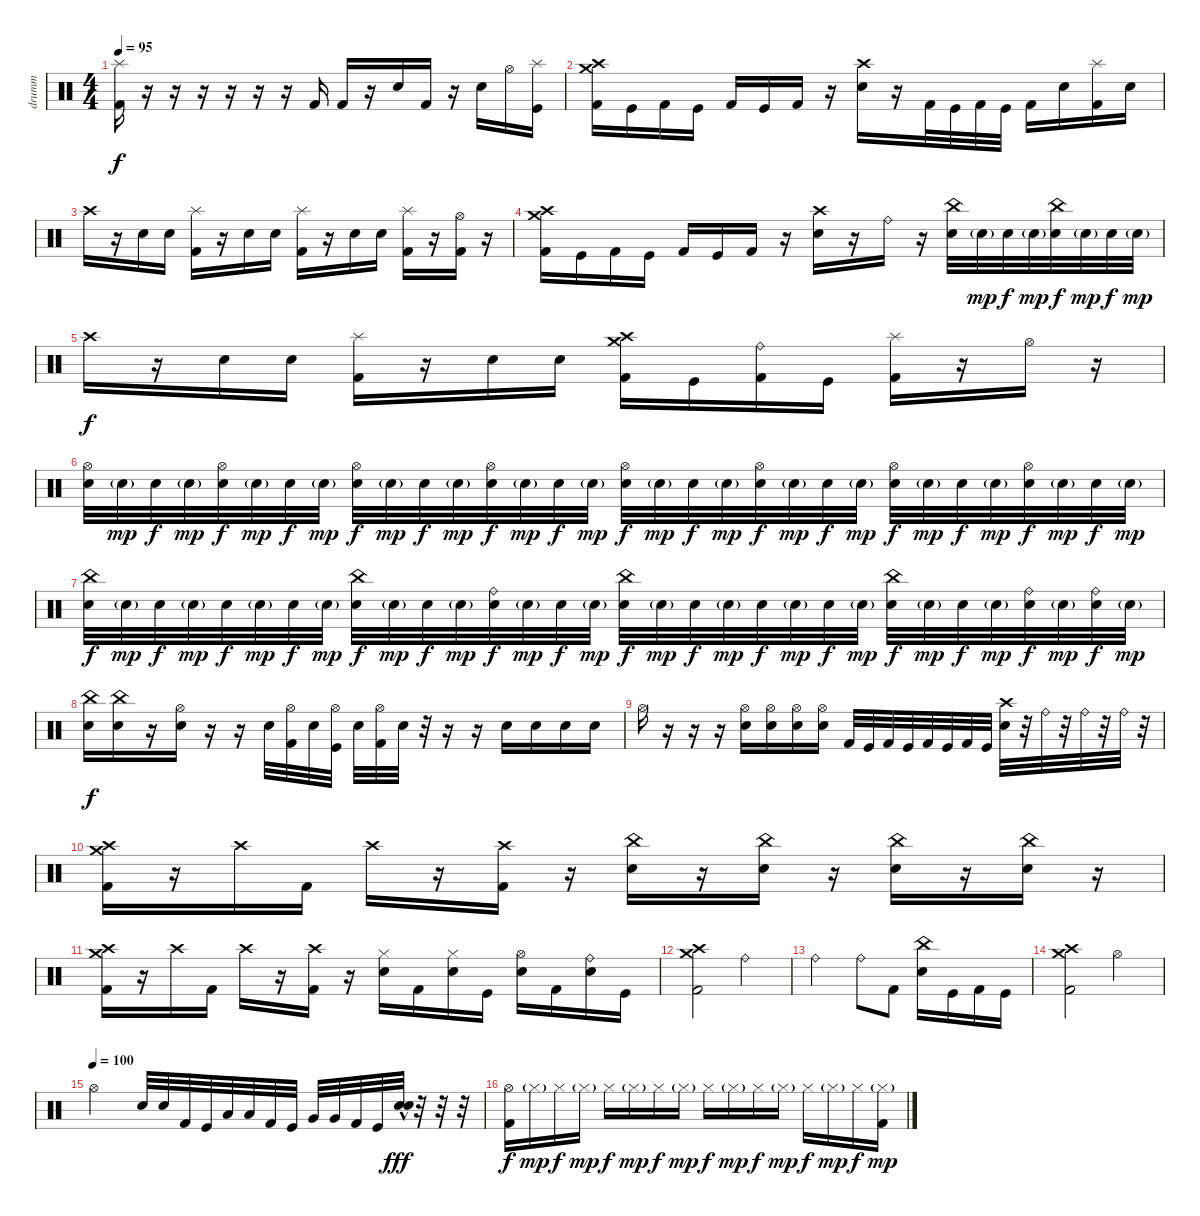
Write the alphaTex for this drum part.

\track ("drumm" "drumm") {instrument percussion}
\staff
\articulation defaults
\ts (4 4)
\tempo 95
\clef neutral
\ks c
("Kick (hit) 2" "Splash (hit)").16{dy f} r.16 r.16 r.16 r.16 r.16 r.16 "Kick (hit) 2".16 "Kick (hit) 2".16 r.16 "Electric Snare (hit)".16 "Kick (hit) 2".16 r.16 "Electric Snare (hit)".16 "Hi-Hat (open)".16 ("Kick (hit)" "Splash (hit)").16 |
("Kick (hit) 2" "Crash medium (hit)" "Crash high (hit)").16 "Kick (hit)".16 "Kick (hit) 2".16 "Kick (hit)".16 "Kick (hit) 2".16 "Kick (hit)".16 "Kick (hit) 2".16 r.16 ("Electric Snare (hit)" "Crash high (hit)").16 r.16 "Kick (hit) 2".32 "Kick (hit)".32 "Kick (hit) 2".32 "Kick (hit)".32 "Kick (hit) 2".16 "Electric Snare (hit)".16 ("Kick (hit) 2" "Splash (hit)").16 "Electric Snare (hit)".16 |
"Crash high (hit)".16 r.16 "Electric Snare (hit)".16 "Electric Snare (hit)".16 ("Kick (hit) 2" "Splash (hit)").16 r.16 "Electric Snare (hit)".16 "Electric Snare (hit)".16 ("Kick (hit) 2" "Splash (hit)").16 r.16 "Electric Snare (hit)".16 "Electric Snare (hit)".16 ("Kick (hit) 2" "Splash (hit)").16 r.16 ("Kick (hit) 2" "Hi-Hat (open)").16 r.16 |
("Kick (hit) 2" "Crash medium (hit)" "Crash high (hit)").16 "Kick (hit)".16 "Kick (hit) 2".16 "Kick (hit)".16 "Kick (hit) 2".16 "Kick (hit)".16 "Kick (hit) 2".16 r.16 ("Electric Snare (hit)" "Crash high (hit)").16 r.16 "Ride (bell)".16 r.16 ("Electric Snare (hit)" "China (hit)").32 "Electric Snare (hit)"{g}.32{dy mp} "Electric Snare (hit)".32{dy f} "Electric Snare (hit)"{g}.32{dy mp} ("Electric Snare (hit)" "China (hit)").32{dy f} "Electric Snare (hit)"{g}.32{dy mp} "Electric Snare (hit)".32{dy f} "Electric Snare (hit)"{g}.32{dy mp} |
"Crash high (hit)".16{dy f} r.16 "Electric Snare (hit)".16 "Electric Snare (hit)".16 ("Kick (hit) 2" "Splash (hit)").16 r.16 "Electric Snare (hit)".16 "Electric Snare (hit)".16 ("Kick (hit) 2" "Crash medium (hit)" "Crash high (hit)").16 "Kick (hit)".16 ("Kick (hit) 2" "Ride (bell)").16 "Kick (hit)".16 ("Kick (hit) 2" "Splash (hit)").16 r.16 "Hi-Hat (open)".16 r.16 |
("Electric Snare (hit)" "Hi-Hat (open)").32 "Electric Snare (hit)"{g}.32{dy mp} "Electric Snare (hit)".32{dy f} "Electric Snare (hit)"{g}.32{dy mp} ("Electric Snare (hit)" "Hi-Hat (open)").32{dy f} "Electric Snare (hit)"{g}.32{dy mp} "Electric Snare (hit)".32{dy f} "Electric Snare (hit)"{g}.32{dy mp} ("Electric Snare (hit)" "Hi-Hat (open)").32{dy f} "Electric Snare (hit)"{g}.32{dy mp} "Electric Snare (hit)".32{dy f} "Electric Snare (hit)"{g}.32{dy mp} ("Electric Snare (hit)" "Hi-Hat (open)").32{dy f} "Electric Snare (hit)"{g}.32{dy mp} "Electric Snare (hit)".32{dy f} "Electric Snare (hit)"{g}.32{dy mp} ("Electric Snare (hit)" "Hi-Hat (open)").32{dy f} "Electric Snare (hit)"{g}.32{dy mp} "Electric Snare (hit)".32{dy f} "Electric Snare (hit)"{g}.32{dy mp} ("Electric Snare (hit)" "Hi-Hat (open)").32{dy f} "Electric Snare (hit)"{g}.32{dy mp} "Electric Snare (hit)".32{dy f} "Electric Snare (hit)"{g}.32{dy mp} ("Electric Snare (hit)" "Hi-Hat (open)").32{dy f} "Electric Snare (hit)"{g}.32{dy mp} "Electric Snare (hit)".32{dy f} "Electric Snare (hit)"{g}.32{dy mp} ("Electric Snare (hit)" "Hi-Hat (open)").32{dy f} "Electric Snare (hit)"{g}.32{dy mp} "Electric Snare (hit)".32{dy f} "Electric Snare (hit)"{g}.32{dy mp} |
("Electric Snare (hit)" "China (hit)").32{dy f} "Electric Snare (hit)"{g}.32{dy mp} "Electric Snare (hit)".32{dy f} "Electric Snare (hit)"{g}.32{dy mp} "Electric Snare (hit)".32{dy f} "Electric Snare (hit)"{g}.32{dy mp} "Electric Snare (hit)".32{dy f} "Electric Snare (hit)"{g}.32{dy mp} ("Electric Snare (hit)" "China (hit)").32{dy f} "Electric Snare (hit)"{g}.32{dy mp} "Electric Snare (hit)".32{dy f} "Electric Snare (hit)"{g}.32{dy mp} ("Electric Snare (hit)" "Ride (bell)").32{dy f} "Electric Snare (hit)"{g}.32{dy mp} "Electric Snare (hit)".32{dy f} "Electric Snare (hit)"{g}.32{dy mp} ("Electric Snare (hit)" "China (hit)").32{dy f} "Electric Snare (hit)"{g}.32{dy mp} "Electric Snare (hit)".32{dy f} "Electric Snare (hit)"{g}.32{dy mp} "Electric Snare (hit)".32{dy f} "Electric Snare (hit)"{g}.32{dy mp} "Electric Snare (hit)".32{dy f} "Electric Snare (hit)"{g}.32{dy mp} ("Electric Snare (hit)" "China (hit)").32{dy f} "Electric Snare (hit)"{g}.32{dy mp} "Electric Snare (hit)".32{dy f} "Electric Snare (hit)"{g}.32{dy mp} ("Electric Snare (hit)" "Ride (bell)").32{dy f} "Electric Snare (hit)"{g}.32{dy mp} ("Electric Snare (hit)" "Ride (bell)").32{dy f} "Electric Snare (hit)"{g}.32{dy mp} |
("Electric Snare (hit)" "China (hit)").16{dy f} ("Electric Snare (hit)" "China (hit)").16 r.16 ("Electric Snare (hit)" "Hi-Hat (open)").16 r.16 r.16 "Electric Snare (hit)".32 ("Kick (hit) 2" "Hi-Hat (open)").32 "Electric Snare (hit)".32 ("Kick (hit)" "Hi-Hat (open)").32 "Electric Snare (hit)".32 ("Kick (hit) 2" "Hi-Hat (open)").32 "Electric Snare (hit)".32 r.32 r.16 r.16 "Electric Snare (hit)".16 "Electric Snare (hit)".16 "Electric Snare (hit)".16 "Electric Snare (hit)".16 |
"Hi-Hat (open)".16 r.16 r.16 r.16 ("Electric Snare (hit)" "Hi-Hat (open)").16 ("Electric Snare (hit)" "Hi-Hat (open)").16 ("Electric Snare (hit)" "Hi-Hat (open)").16 ("Electric Snare (hit)" "Hi-Hat (open)").16 "Kick (hit) 2".32 "Kick (hit)".32 "Kick (hit) 2".32 "Kick (hit)".32 "Kick (hit) 2".32 "Kick (hit)".32 "Kick (hit) 2".32 "Kick (hit)".32 ("Electric Snare (hit)" "Crash high (hit)").32 r.32 "Ride (bell)".32 r.32 "Ride (bell)".32 r.32 "Ride (bell)".32 r.32 |
("Kick (hit) 2" "Crash medium (hit)" "Crash high (hit)").16 r.16 "Crash high (hit)".16 "Kick (hit) 2".16 "Crash high (hit)".16 r.16 ("Kick (hit) 2" "Crash high (hit)").16 r.16 ("Electric Snare (hit)" "China (hit)").16 r.16 ("Electric Snare (hit)" "China (hit)").16 r.16 ("Electric Snare (hit)" "China (hit)").16 r.16 ("Electric Snare (hit)" "China (hit)").16 r.16 |
("Kick (hit) 2" "Crash medium (hit)" "Crash high (hit)").16 r.16 "Crash high (hit)".16 "Kick (hit) 2".16 "Crash high (hit)".16 r.16 ("Kick (hit) 2" "Crash high (hit)").16 r.16 ("Electric Snare (hit)" "Hi-Hat (closed)").16 "Kick (hit) 2".16 ("Electric Snare (hit)" "Hi-Hat (closed)").16 "Kick (hit)".16 ("Electric Snare (hit)" "Hi-Hat (open)").16 "Kick (hit) 2".16 ("Electric Snare (hit)" "Ride (bell)").16 "Kick (hit)".16 |
("Kick (hit) 2" "Crash medium (hit)" "Crash high (hit)").2 "Ride (bell)".2 |
"Ride (bell)".2 "Ride (bell)".8 "Kick (hit) 2".8 ("Electric Snare (hit)" "China (hit)").16 "Kick (hit)".16 "Kick (hit) 2".16 "Kick (hit)".16 |
("Kick (hit) 2" "Crash medium (hit)" "Crash high (hit)").2 "Hi-Hat (open)".2 |
\tempo (100)
"Hi-Hat (open)".2 "Electric Snare (hit)".32 "Electric Snare (hit)".32 "Kick (hit) 2".32 "Kick (hit)".32 "Low Tom (hit)".32 "Low Tom (hit)".32 "Kick (hit) 2".32 "Kick (hit)".32 "Very Low Tom (hit)".32 "Very Low Tom (hit)".32 "Kick (hit) 2".32 "Kick (hit)".32 ("Electric Snare (hit)" "Electric Snare (hit)"{hac}).32{dy fff} r.32 r.32 r.32 |
("Kick (hit) 2" "Hi-Hat (open)").16{dy f} "Hi-Hat (closed)"{g}.16{dy mp} "Hi-Hat (closed)".16{dy f} "Hi-Hat (closed)"{g}.16{dy mp} "Hi-Hat (closed)".16{dy f} "Hi-Hat (closed)"{g}.16{dy mp} "Hi-Hat (closed)".16{dy f} "Hi-Hat (closed)"{g}.16{dy mp} "Hi-Hat (closed)".16{dy f} "Hi-Hat (closed)"{g}.16{dy mp} "Hi-Hat (closed)".16{dy f} "Hi-Hat (closed)"{g}.16{dy mp} "Hi-Hat (closed)".16{dy f} "Hi-Hat (closed)"{g}.16{dy mp} "Hi-Hat (closed)".16{dy f} ("Hi-Hat (closed)"{g} "Kick (hit) 2").16{dy mp}
